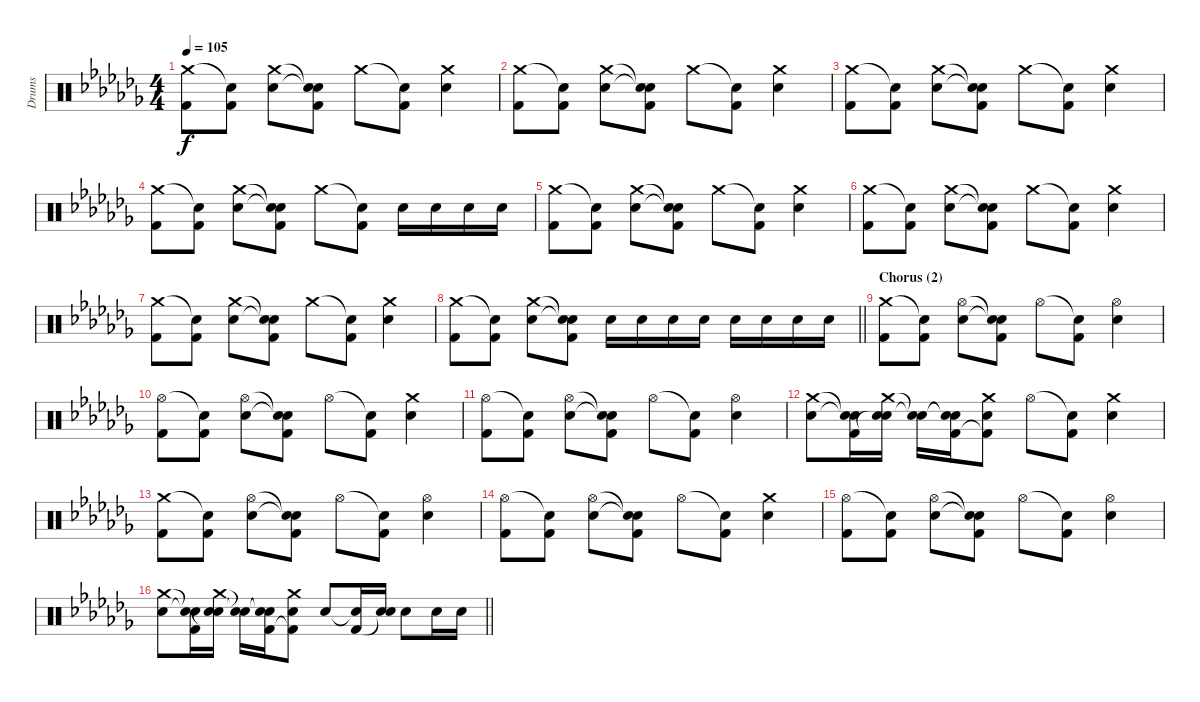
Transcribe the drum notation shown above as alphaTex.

\track ("Drums" "Drums") {instrument percussion}
\staff {score}
\articulation defaults
\ts (4 4)
\tempo 105
\clef neutral
\ks abminor
("Crash medium (hit)" "Kick (hit) 2").8{dy f} ("Snare (hit)"{t} "Kick (hit) 2").8 ("Crash medium (hit)" "Electric Snare (hit)").8 ("Snare (hit)"{t} "Snare (hit)"{t} "Kick (hit) 2").8 "Crash medium (hit)".8 ("Snare (hit)"{t} "Kick (hit) 2").8 ("Crash medium (hit)" "Electric Snare (hit)").4 |
("Crash medium (hit)" "Kick (hit) 2").8 ("Snare (hit)"{t} "Kick (hit) 2").8 ("Crash medium (hit)" "Electric Snare (hit)").8 ("Snare (hit)"{t} "Snare (hit)"{t} "Kick (hit) 2").8 "Crash medium (hit)".8 ("Snare (hit)"{t} "Kick (hit) 2").8 ("Crash medium (hit)" "Electric Snare (hit)").4 |
("Crash medium (hit)" "Kick (hit) 2").8 ("Snare (hit)"{t} "Kick (hit) 2").8 ("Crash medium (hit)" "Electric Snare (hit)").8 ("Snare (hit)"{t} "Snare (hit)"{t} "Kick (hit) 2").8 "Crash medium (hit)".8 ("Snare (hit)"{t} "Kick (hit) 2").8 ("Crash medium (hit)" "Electric Snare (hit)").4 |
("Crash medium (hit)" "Kick (hit) 2").8 ("Snare (hit)"{t} "Kick (hit) 2").8 ("Crash medium (hit)" "Electric Snare (hit)").8 ("Snare (hit)"{t} "Snare (hit)"{t} "Kick (hit) 2").8 "Crash medium (hit)".8 ("Snare (hit)"{t} "Kick (hit) 2").8 "Electric Snare (hit)".16 "Electric Snare (hit)".16 "Electric Snare (hit)".16 "Electric Snare (hit)".16 |
("Crash medium (hit)" "Kick (hit) 2").8 ("Snare (hit)"{t} "Kick (hit) 2").8 ("Crash medium (hit)" "Electric Snare (hit)").8 ("Snare (hit)"{t} "Snare (hit)"{t} "Kick (hit) 2").8 "Crash medium (hit)".8 ("Snare (hit)"{t} "Kick (hit) 2").8 ("Crash medium (hit)" "Electric Snare (hit)").4 |
("Crash medium (hit)" "Kick (hit) 2").8 ("Snare (hit)"{t} "Kick (hit) 2").8 ("Crash medium (hit)" "Electric Snare (hit)").8 ("Snare (hit)"{t} "Snare (hit)"{t} "Kick (hit) 2").8 "Crash medium (hit)".8 ("Snare (hit)"{t} "Kick (hit) 2").8 ("Crash medium (hit)" "Electric Snare (hit)").4 |
("Crash medium (hit)" "Kick (hit) 2").8 ("Snare (hit)"{t} "Kick (hit) 2").8 ("Crash medium (hit)" "Electric Snare (hit)").8 ("Snare (hit)"{t} "Snare (hit)"{t} "Kick (hit) 2").8 "Crash medium (hit)".8 ("Snare (hit)"{t} "Kick (hit) 2").8 ("Crash medium (hit)" "Electric Snare (hit)").4 |
\barLineRight lightlight
("Crash medium (hit)" "Kick (hit) 2").8 ("Snare (hit)"{t} "Kick (hit) 2").8 ("Crash medium (hit)" "Electric Snare (hit)").8 ("Snare (hit)"{t} "Snare (hit)"{t} "Kick (hit) 2").8 "Electric Snare (hit)".16 "Electric Snare (hit)".16 "Electric Snare (hit)".16 "Electric Snare (hit)".16 "Electric Snare (hit)".16 "Electric Snare (hit)".16 "Electric Snare (hit)".16 "Electric Snare (hit)".16 |
\section ("" "Chorus (2)")
("Crash medium (hit)" "Kick (hit) 2").8 ("Snare (hit)"{t} "Kick (hit) 2").8 ("Hi-Hat (open)" "Electric Snare (hit)").8 ("Snare (hit)"{t} "Snare (hit)"{t} "Kick (hit) 2").8 "Hi-Hat (open)".8 ("Snare (hit)"{t} "Kick (hit) 2").8 ("Hi-Hat (open)" "Electric Snare (hit)").4 |
("Hi-Hat (open)" "Kick (hit) 2").8 ("Snare (hit)"{t} "Kick (hit) 2").8 ("Hi-Hat (open)" "Electric Snare (hit)").8 ("Snare (hit)"{t} "Snare (hit)"{t} "Kick (hit) 2").8 "Hi-Hat (open)".8 ("Snare (hit)"{t} "Kick (hit) 2").8 ("Crash medium (hit)" "Electric Snare (hit)").4 |
("Hi-Hat (open)" "Kick (hit) 2").8 ("Snare (hit)"{t} "Kick (hit) 2").8 ("Hi-Hat (open)" "Electric Snare (hit)").8 ("Snare (hit)"{t} "Snare (hit)"{t} "Kick (hit) 2").8 "Hi-Hat (open)".8 ("Snare (hit)"{t} "Kick (hit) 2").8 ("Hi-Hat (open)" "Electric Snare (hit)").4 |
("Crash medium (hit)" "Electric Snare (hit)").8 ("Snare (hit)"{t} "Snare (hit)"{t} "Kick (hit) 2").16 ("Crash medium (hit)" "Electric Snare (hit)" "Snare (hit)"{t}).16 ("Snare (hit)"{t} "Snare (hit)"{t}).16 ("Snare (hit)"{t} "Snare (hit)"{t} "Kick (hit) 2").16 ("Crash medium (hit)" "Electric Snare (hit)" "Kick (hit) 2"{t}).8 "Hi-Hat (open)".8 ("Snare (hit)"{t} "Kick (hit) 2").8 ("Crash medium (hit)" "Electric Snare (hit)").4 |
("Crash medium (hit)" "Kick (hit) 2").8 ("Snare (hit)"{t} "Kick (hit) 2").8 ("Hi-Hat (open)" "Electric Snare (hit)").8 ("Snare (hit)"{t} "Snare (hit)"{t} "Kick (hit) 2").8 "Hi-Hat (open)".8 ("Snare (hit)"{t} "Kick (hit) 2").8 ("Hi-Hat (open)" "Electric Snare (hit)").4 |
("Hi-Hat (open)" "Kick (hit) 2").8 ("Snare (hit)"{t} "Kick (hit) 2").8 ("Hi-Hat (open)" "Electric Snare (hit)").8 ("Snare (hit)"{t} "Snare (hit)"{t} "Kick (hit) 2").8 "Hi-Hat (open)".8 ("Snare (hit)"{t} "Kick (hit) 2").8 ("Crash medium (hit)" "Electric Snare (hit)").4 |
("Hi-Hat (open)" "Kick (hit) 2").8 ("Snare (hit)"{t} "Kick (hit) 2").8 ("Hi-Hat (open)" "Electric Snare (hit)").8 ("Snare (hit)"{t} "Snare (hit)"{t} "Kick (hit) 2").8 "Hi-Hat (open)".8 ("Snare (hit)"{t} "Kick (hit) 2").8 ("Hi-Hat (open)" "Electric Snare (hit)").4 |
\barLineRight lightlight
("Crash medium (hit)" "Electric Snare (hit)").8 ("Snare (hit)"{t} "Snare (hit)"{t} "Kick (hit) 2").16 ("Crash medium (hit)" "Electric Snare (hit)" "Snare (hit)"{t}).16 ("Snare (hit)"{t} "Snare (hit)"{t}).16 ("Snare (hit)"{t} "Snare (hit)"{t} "Kick (hit) 2").16 ("Crash medium (hit)" "Electric Snare (hit)" "Kick (hit) 2"{t}).8 "Electric Snare (hit)".8 ("Snare (hit)"{t} "Kick (hit) 2").16 ("Electric Snare (hit)" "Snare (hit)"{t}).16 "Electric Snare (hit)".8 "Electric Snare (hit)".16 "Electric Snare (hit)".16
